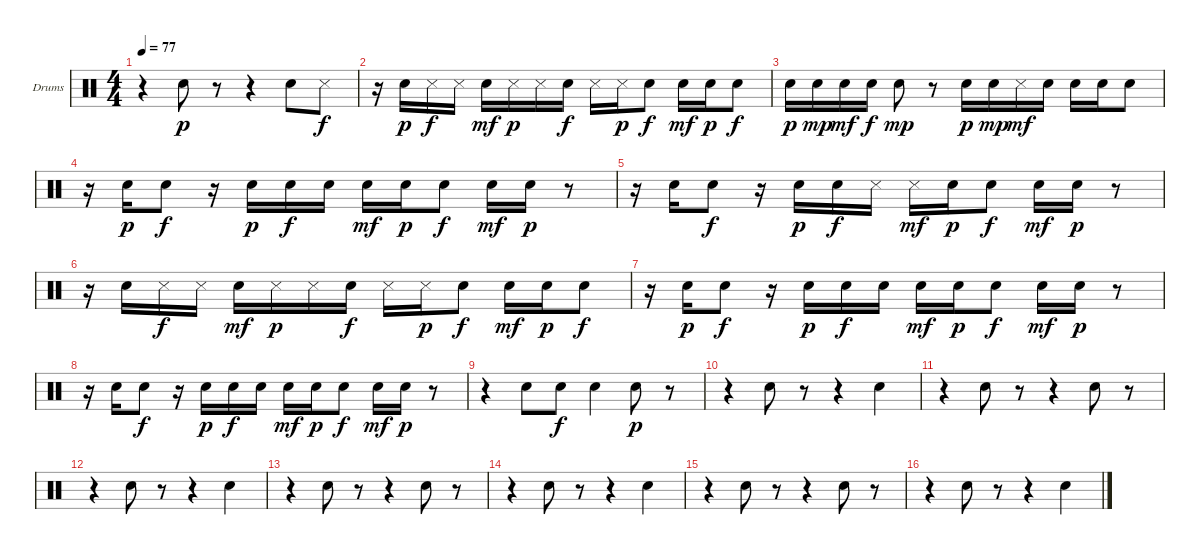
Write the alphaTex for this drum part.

\bracketExtendMode groupsimilarinstruments
\firstSystemTrackNameOrientation horizontal
\otherSystemsTrackNameOrientation horizontal
\track ("Drumkit Гурьянов" "Drums") {instrument percussion}
\staff {score}
\articulation defaults
\ts (4 4)
\tempo 77
\clef neutral
\scale
0.333333
\ks c
r.4{dy f} "Snare (hit) 2".8{dy p} r.8 r.4 "Snare (hit) 2".8 "Snare (side stick) 3".8{dy f} |
\scale
0.333333 r.16 "Snare (hit) 2".16{dy p} "Snare (side stick) 3".16{dy f} "Snare (side stick) 3".16 "Snare (hit) 2".16{dy mf} "Snare (side stick) 3".16{dy p} "Snare (side stick) 3".16 "Snare (hit) 2".16{dy f} "Snare (side stick) 3".16 "Snare (side stick) 3".16{dy p} "Snare (hit) 2".8{dy f} "Snare (hit) 2".16{dy mf} "Snare (hit) 2".16{dy p} "Snare (hit) 2".8{dy f} |
\scale
0.333333 "Snare (hit) 2".16{dy p} "Snare (hit) 2".16{dy mp} "Snare (hit) 2".16{dy mf} "Snare (hit) 2".16{dy f} "Snare (hit) 2".8{dy mp} r.8 "Snare (hit) 2".16{dy p} "Snare (hit) 2".16{dy mp} "Snare (side stick) 3".16{dy mf} "Snare (hit) 2".16 "Snare (hit) 2".16 "Snare (hit) 2".16 "Snare (hit) 2".8 |
\scale
0.333333 r.16 "Snare (hit) 2".16{dy p} "Snare (hit) 2".8{dy f} r.16 "Snare (hit) 2".16{dy p} "Snare (hit) 2".16{dy f} "Snare (hit) 2".16 "Snare (hit) 2".16{dy mf} "Snare (hit) 2".16{dy p} "Snare (hit) 2".8{dy f} "Snare (hit) 2".16{dy mf} "Snare (hit) 2".16{dy p} r.8 |
\scale
0.333333 r.16 "Snare (hit) 2".16 "Snare (hit) 2".8{dy f} r.16 "Snare (hit) 2".16{dy p} "Snare (hit) 2".16{dy f} "Snare (side stick) 3".16 "Snare (side stick) 3".16{dy mf} "Snare (hit) 2".16{dy p} "Snare (hit) 2".8{dy f} "Snare (hit) 2".16{dy mf} "Snare (hit) 2".16{dy p} r.8 |
\scale
0.333333 r.16 "Snare (hit) 2".16 "Snare (side stick) 3".16{dy f} "Snare (side stick) 3".16 "Snare (hit) 2".16{dy mf} "Snare (side stick) 3".16{dy p} "Snare (side stick) 3".16 "Snare (hit) 2".16{dy f} "Snare (side stick) 3".16 "Snare (side stick) 3".16{dy p} "Snare (hit) 2".8{dy f} "Snare (hit) 2".16{dy mf} "Snare (hit) 2".16{dy p} "Snare (hit) 2".8{dy f} |
\scale
0.333333 r.16 "Snare (hit) 2".16{dy p} "Snare (hit) 2".8{dy f} r.16 "Snare (hit) 2".16{dy p} "Snare (hit) 2".16{dy f} "Snare (hit) 2".16 "Snare (hit) 2".16{dy mf} "Snare (hit) 2".16{dy p} "Snare (hit) 2".8{dy f} "Snare (hit) 2".16{dy mf} "Snare (hit) 2".16{dy p} r.8 |
\scale
0.333333 r.16 "Snare (hit) 2".16 "Snare (hit) 2".8{dy f} r.16 "Snare (hit) 2".16{dy p} "Snare (hit) 2".16{dy f} "Snare (hit) 2".16 "Snare (hit) 2".16{dy mf} "Snare (hit) 2".16{dy p} "Snare (hit) 2".8{dy f} "Snare (hit) 2".16{dy mf} "Snare (hit) 2".16{dy p} r.8 |
\scale
0.333333 r.4 "Snare (hit) 2".8 "Snare (hit) 2".8{dy f} "Snare (hit) 2".4 "Snare (hit) 2".8{dy p} r.8 |
\scale
0.333333 r.4 "Snare (hit) 2".8 r.8 r.4 "Snare (hit) 2".4 |
\scale
0.333333 r.4 "Snare (hit) 2".8 r.8 r.4 "Snare (hit) 2".8 r.8 |
\scale
0.333333 r.4 "Snare (hit) 2".8 r.8 r.4 "Snare (hit) 2".4 |
\scale
0.333333 r.4 "Snare (hit) 2".8 r.8 r.4 "Snare (hit) 2".8 r.8 |
\scale
0.333333 r.4 "Snare (hit) 2".8 r.8 r.4 "Snare (hit) 2".4 |
\scale
0.333333 r.4 "Snare (hit) 2".8 r.8 r.4 "Snare (hit) 2".8 r.8 |
\scale
0.333333 r.4 "Snare (hit) 2".8 r.8 r.4 "Snare (hit) 2".4
